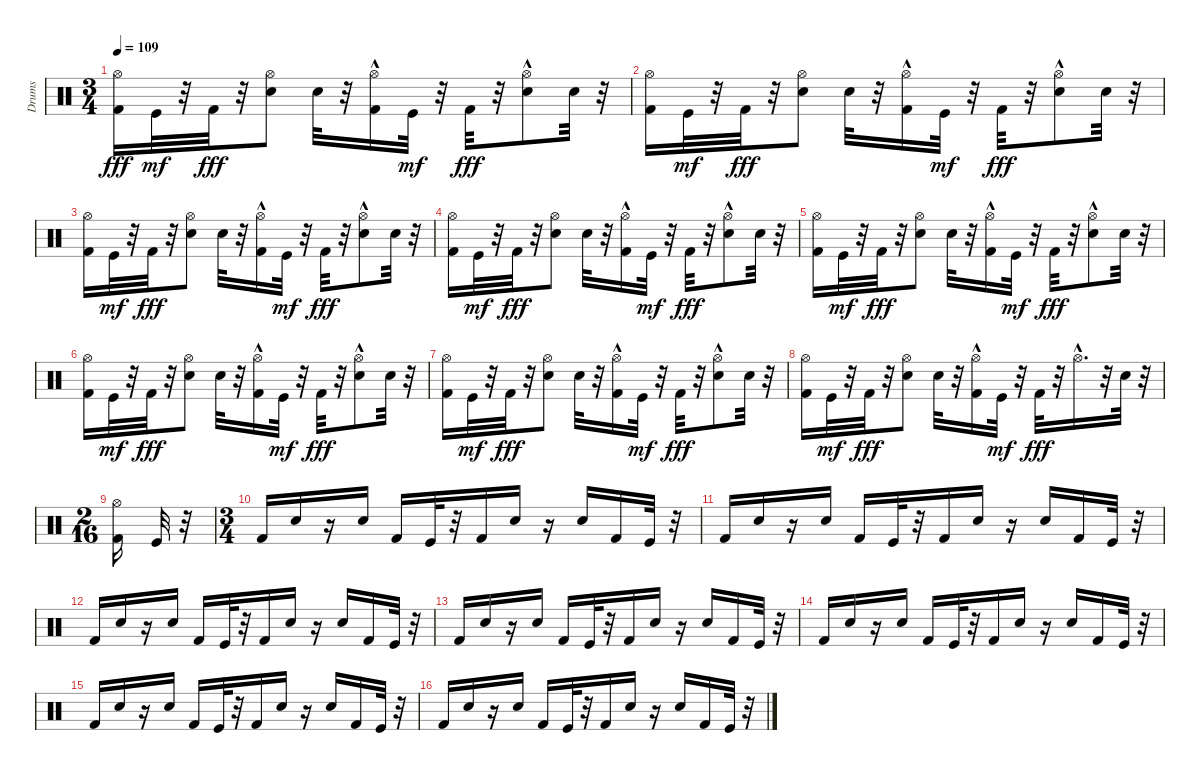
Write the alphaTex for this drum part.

\track ("Drums" "Drums") {instrument percussion}
\staff {score}
\articulation defaults
\ts (3 4)
\tempo 109
\clef neutral
\ks c
("Kick (hit) 2" "Hi-Hat (open)").16{dy fff} "Kick (hit)".32{dy mf} r.32 "Kick (hit) 2".32{dy fff} r.32 ("Electric Snare (hit)" "Hi-Hat (open)").8 "Electric Snare (hit)".32 r.32 ("Kick (hit) 2" "Hi-Hat (open)"{hac}).16 "Kick (hit)".32{dy mf} r.32 "Kick (hit) 2".32{dy fff} r.32 ("Electric Snare (hit)" "Hi-Hat (open)"{hac}).8 "Electric Snare (hit)".32 r.32 |
("Kick (hit) 2" "Hi-Hat (open)").16 "Kick (hit)".32{dy mf} r.32 "Kick (hit) 2".32{dy fff} r.32 ("Electric Snare (hit)" "Hi-Hat (open)").8 "Electric Snare (hit)".32 r.32 ("Kick (hit) 2" "Hi-Hat (open)"{hac}).16 "Kick (hit)".32{dy mf} r.32 "Kick (hit) 2".32{dy fff} r.32 ("Electric Snare (hit)" "Hi-Hat (open)"{hac}).8 "Electric Snare (hit)".32 r.32 |
("Kick (hit) 2" "Hi-Hat (open)").16 "Kick (hit)".32{dy mf} r.32 "Kick (hit) 2".32{dy fff} r.32 ("Electric Snare (hit)" "Hi-Hat (open)").8 "Electric Snare (hit)".32 r.32 ("Kick (hit) 2" "Hi-Hat (open)"{hac}).16 "Kick (hit)".32{dy mf} r.32 "Kick (hit) 2".32{dy fff} r.32 ("Electric Snare (hit)" "Hi-Hat (open)"{hac}).8 "Electric Snare (hit)".32 r.32 |
("Kick (hit) 2" "Hi-Hat (open)").16 "Kick (hit)".32{dy mf} r.32 "Kick (hit) 2".32{dy fff} r.32 ("Electric Snare (hit)" "Hi-Hat (open)").8 "Electric Snare (hit)".32 r.32 ("Kick (hit) 2" "Hi-Hat (open)"{hac}).16 "Kick (hit)".32{dy mf} r.32 "Kick (hit) 2".32{dy fff} r.32 ("Electric Snare (hit)" "Hi-Hat (open)"{hac}).8 "Electric Snare (hit)".32 r.32 |
("Kick (hit) 2" "Hi-Hat (open)").16 "Kick (hit)".32{dy mf} r.32 "Kick (hit) 2".32{dy fff} r.32 ("Electric Snare (hit)" "Hi-Hat (open)").8 "Electric Snare (hit)".32 r.32 ("Kick (hit) 2" "Hi-Hat (open)"{hac}).16 "Kick (hit)".32{dy mf} r.32 "Kick (hit) 2".32{dy fff} r.32 ("Electric Snare (hit)" "Hi-Hat (open)"{hac}).8 "Electric Snare (hit)".32 r.32 |
("Kick (hit) 2" "Hi-Hat (open)").16 "Kick (hit)".32{dy mf} r.32 "Kick (hit) 2".32{dy fff} r.32 ("Electric Snare (hit)" "Hi-Hat (open)").8 "Electric Snare (hit)".32 r.32 ("Kick (hit) 2" "Hi-Hat (open)"{hac}).16 "Kick (hit)".32{dy mf} r.32 "Kick (hit) 2".32{dy fff} r.32 ("Electric Snare (hit)" "Hi-Hat (open)"{hac}).8 "Electric Snare (hit)".32 r.32 |
("Kick (hit) 2" "Hi-Hat (open)").16 "Kick (hit)".32{dy mf} r.32 "Kick (hit) 2".32{dy fff} r.32 ("Electric Snare (hit)" "Hi-Hat (open)").8 "Electric Snare (hit)".32 r.32 ("Kick (hit) 2" "Hi-Hat (open)"{hac}).16 "Kick (hit)".32{dy mf} r.32 "Kick (hit) 2".32{dy fff} r.32 ("Electric Snare (hit)" "Hi-Hat (open)"{hac}).8 "Electric Snare (hit)".32 r.32 |
("Kick (hit) 2" "Hi-Hat (open)").16 "Kick (hit)".32{dy mf} r.32 "Kick (hit) 2".32{dy fff} r.32 ("Electric Snare (hit)" "Hi-Hat (open)").8 "Electric Snare (hit)".32 r.32 ("Kick (hit) 2" "Hi-Hat (open)"{hac}).16 "Kick (hit)".32{dy mf} r.32 "Kick (hit) 2".32{dy fff} r.32 "Hi-Hat (open)"{hac}.16{d} r.32 "Electric Snare (hit)".32 r.32 |
\ts (2 16)
("Hi-Hat (open)" "Kick (hit) 2").16 "Kick (hit)".32 r.32 |
\ts (3 4)
"Kick (hit) 2".16 "Electric Snare (hit)".16 r.16 "Electric Snare (hit)".16 "Kick (hit) 2".16 "Kick (hit)".32 r.32 "Kick (hit) 2".16 "Electric Snare (hit)".16 r.16 "Electric Snare (hit)".16 "Kick (hit) 2".16 "Kick (hit)".32 r.32 |
"Kick (hit) 2".16 "Electric Snare (hit)".16 r.16 "Electric Snare (hit)".16 "Kick (hit) 2".16 "Kick (hit)".32 r.32 "Kick (hit) 2".16 "Electric Snare (hit)".16 r.16 "Electric Snare (hit)".16 "Kick (hit) 2".16 "Kick (hit)".32 r.32 |
"Kick (hit) 2".16 "Electric Snare (hit)".16 r.16 "Electric Snare (hit)".16 "Kick (hit) 2".16 "Kick (hit)".32 r.32 "Kick (hit) 2".16 "Electric Snare (hit)".16 r.16 "Electric Snare (hit)".16 "Kick (hit) 2".16 "Kick (hit)".32 r.32 |
"Kick (hit) 2".16 "Electric Snare (hit)".16 r.16 "Electric Snare (hit)".16 "Kick (hit) 2".16 "Kick (hit)".32 r.32 "Kick (hit) 2".16 "Electric Snare (hit)".16 r.16 "Electric Snare (hit)".16 "Kick (hit) 2".16 "Kick (hit)".32 r.32 |
"Kick (hit) 2".16 "Electric Snare (hit)".16 r.16 "Electric Snare (hit)".16 "Kick (hit) 2".16 "Kick (hit)".32 r.32 "Kick (hit) 2".16 "Electric Snare (hit)".16 r.16 "Electric Snare (hit)".16 "Kick (hit) 2".16 "Kick (hit)".32 r.32 |
"Kick (hit) 2".16 "Electric Snare (hit)".16 r.16 "Electric Snare (hit)".16 "Kick (hit) 2".16 "Kick (hit)".32 r.32 "Kick (hit) 2".16 "Electric Snare (hit)".16 r.16 "Electric Snare (hit)".16 "Kick (hit) 2".16 "Kick (hit)".32 r.32 |
"Kick (hit) 2".16 "Electric Snare (hit)".16 r.16 "Electric Snare (hit)".16 "Kick (hit) 2".16 "Kick (hit)".32 r.32 "Kick (hit) 2".16 "Electric Snare (hit)".16 r.16 "Electric Snare (hit)".16 "Kick (hit) 2".16 "Kick (hit)".32 r.32
